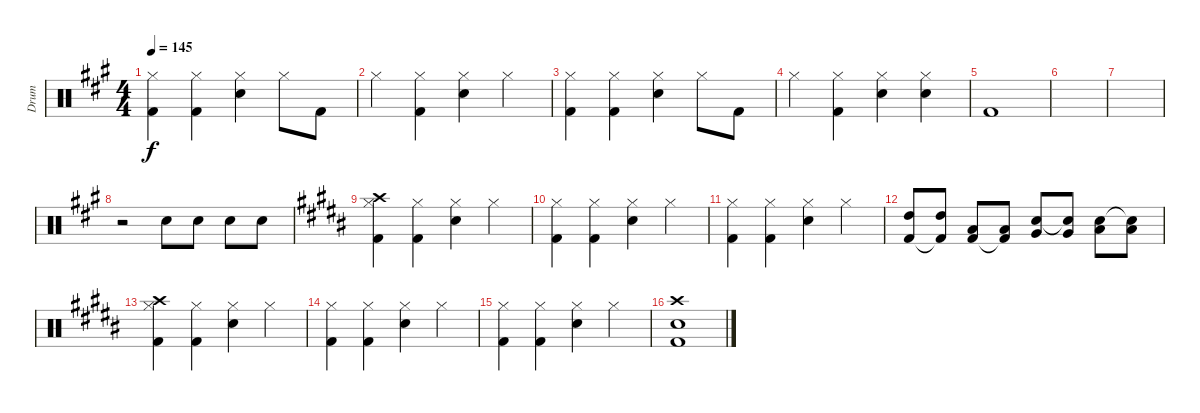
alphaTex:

\track ("Drum" "Drum") {instrument percussion}
\staff {score}
\articulation defaults
\ts (4 4)
\tempo 145
\clef neutral
\ks a
("Hi-Hat (closed)" "Kick (hit) 2").4{dy f} ("Hi-Hat (closed)" "Kick (hit) 2").4 ("Hi-Hat (closed)" "Electric Snare (hit)").4 "Hi-Hat (closed)".8 "Kick (hit) 2".8 |
"Hi-Hat (closed)".4 ("Hi-Hat (closed)" "Kick (hit) 2").4 ("Hi-Hat (closed)" "Electric Snare (hit)").4 "Hi-Hat (closed)".4 |
("Hi-Hat (closed)" "Kick (hit) 2").4 ("Hi-Hat (closed)" "Kick (hit) 2").4 ("Hi-Hat (closed)" "Electric Snare (hit)").4 "Hi-Hat (closed)".8 "Kick (hit) 2".8 |
"Hi-Hat (closed)".4 ("Hi-Hat (closed)" "Kick (hit) 2").4 ("Hi-Hat (closed)" "Electric Snare (hit)").4 ("Hi-Hat (closed)" "Electric Snare (hit)").4 |
"Kick (hit) 2".1 |
|
|
r.2 "Electric Snare (hit)".8 "Electric Snare (hit)".8 "Electric Snare (hit)".8 "Electric Snare (hit)".8 |
\ks b
("Hi-Hat (closed)" "Kick (hit) 2" "Crash high (hit)").4 ("Hi-Hat (closed)" "Kick (hit) 2").4 ("Hi-Hat (closed)" "Electric Snare (hit)").4 "Hi-Hat (closed)".4 |
("Hi-Hat (closed)" "Kick (hit) 2").4 ("Hi-Hat (closed)" "Kick (hit) 2").4 ("Hi-Hat (closed)" "Electric Snare (hit)").4 "Hi-Hat (closed)".4 |
("Hi-Hat (closed)" "Kick (hit) 2").4 ("Hi-Hat (closed)" "Kick (hit) 2").4 ("Hi-Hat (closed)" "Electric Snare (hit)").4 "Hi-Hat (closed)".4 |
("High Tom (hit)" "Kick (hit) 2").8 ("High Tom (hit)" "Kick (hit) 2"{t}).8 ("Low Tom (hit)" "Kick (hit) 2").8 ("Low Tom (hit)" "Kick (hit) 2"{t}).8 ("Very Low Tom (hit)" "Electric Snare (hit)").8 ("Very Low Tom (hit)" "Electric Snare (hit)"{t}).8 ("Low Floor Tom (hit)" "Electric Snare (hit)").8 ("Low Floor Tom (hit)" "Electric Snare (hit)"{t}).8 |
("Hi-Hat (closed)" "Kick (hit) 2" "Crash high (hit)").4 ("Hi-Hat (closed)" "Kick (hit) 2").4 ("Hi-Hat (closed)" "Electric Snare (hit)").4 "Hi-Hat (closed)".4 |
("Hi-Hat (closed)" "Kick (hit) 2").4 ("Hi-Hat (closed)" "Kick (hit) 2").4 ("Hi-Hat (closed)" "Electric Snare (hit)").4 "Hi-Hat (closed)".4 |
("Hi-Hat (closed)" "Kick (hit) 2").4 ("Hi-Hat (closed)" "Kick (hit) 2").4 ("Hi-Hat (closed)" "Electric Snare (hit)").4 "Hi-Hat (closed)".4 |
("Crash high (hit)" "Kick (hit) 2" "Electric Snare (hit)").1
